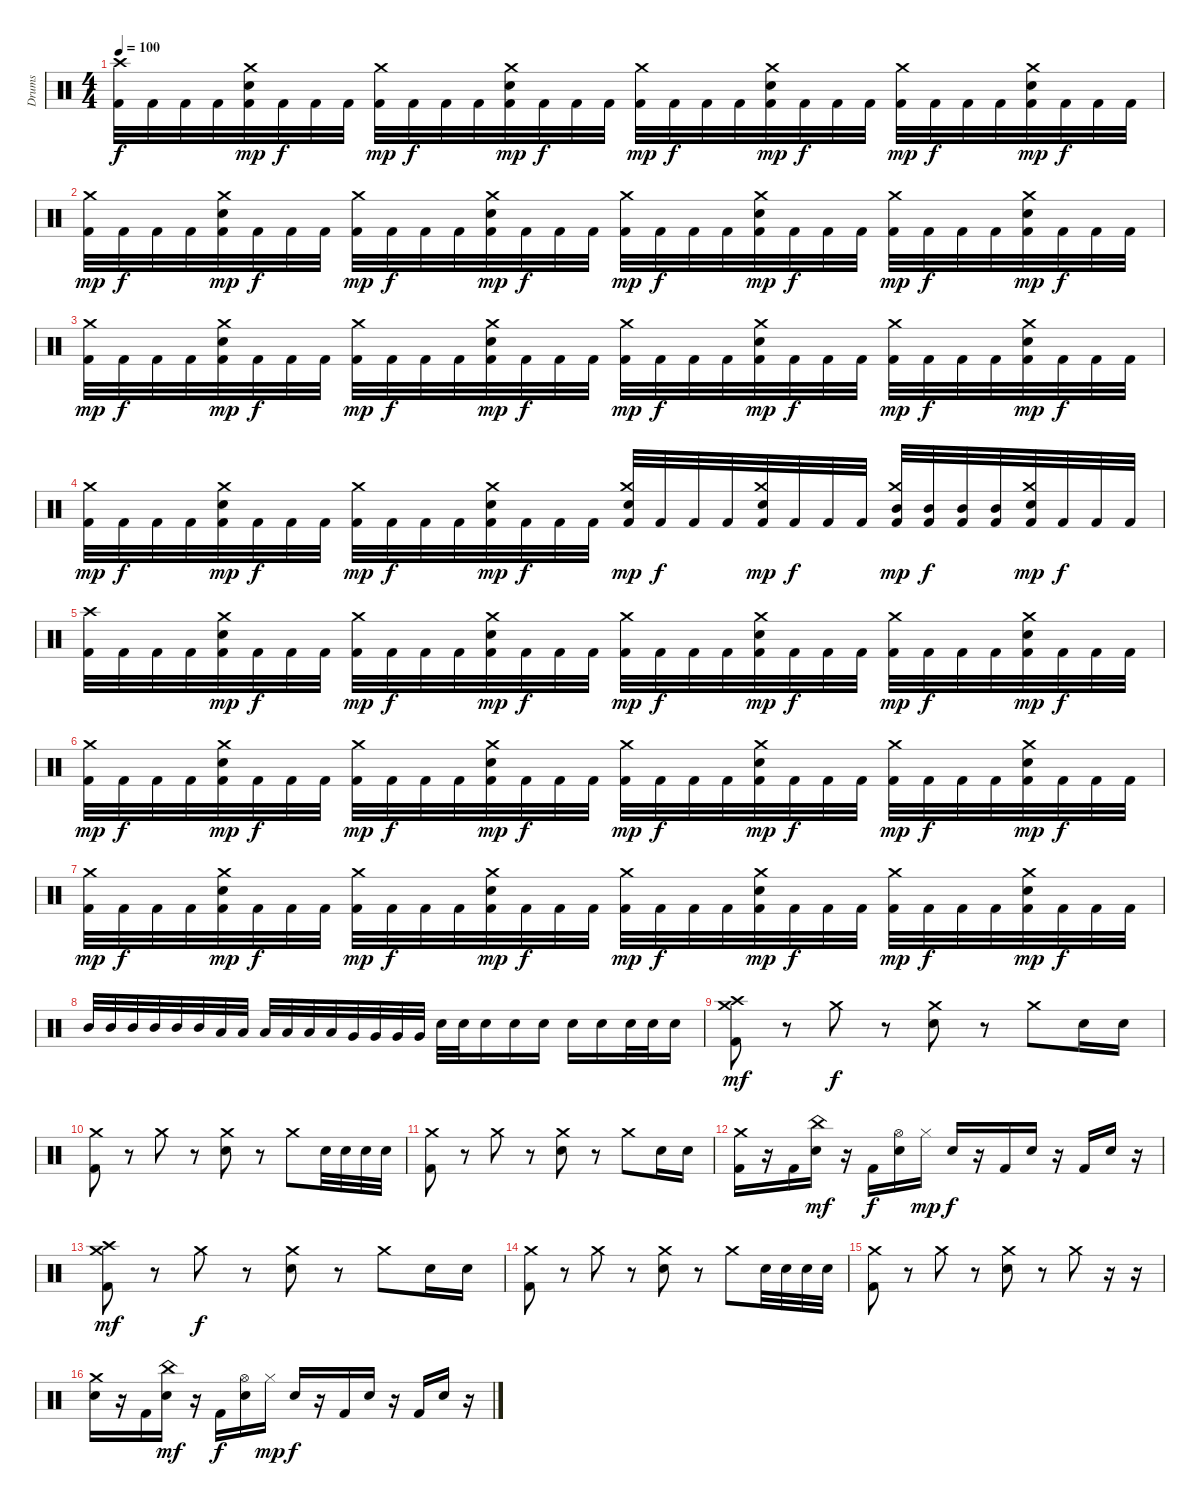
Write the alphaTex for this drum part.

\track ("Drums" "Drums") {instrument percussion}
\staff {score}
\articulation defaults
\ts (4 4)
\tempo 100
\clef neutral
\ks c
("Kick (hit) 2" "Crash high (hit)").32{dy f} "Kick (hit) 2".32 "Kick (hit) 2".32 "Kick (hit) 2".32 ("Kick (hit) 2" "Crash medium (hit)" "Electric Snare (hit)").32{dy mp} "Kick (hit) 2".32{dy f} "Kick (hit) 2".32 "Kick (hit) 2".32 ("Kick (hit) 2" "Crash medium (hit)").32{dy mp} "Kick (hit) 2".32{dy f} "Kick (hit) 2".32 "Kick (hit) 2".32 ("Kick (hit) 2" "Crash medium (hit)" "Electric Snare (hit)").32{dy mp} "Kick (hit) 2".32{dy f} "Kick (hit) 2".32 "Kick (hit) 2".32 ("Kick (hit) 2" "Crash medium (hit)").32{dy mp} "Kick (hit) 2".32{dy f} "Kick (hit) 2".32 "Kick (hit) 2".32 ("Kick (hit) 2" "Crash medium (hit)" "Electric Snare (hit)").32{dy mp} "Kick (hit) 2".32{dy f} "Kick (hit) 2".32 "Kick (hit) 2".32 ("Kick (hit) 2" "Crash medium (hit)").32{dy mp} "Kick (hit) 2".32{dy f} "Kick (hit) 2".32 "Kick (hit) 2".32 ("Kick (hit) 2" "Crash medium (hit)" "Electric Snare (hit)").32{dy mp} "Kick (hit) 2".32{dy f} "Kick (hit) 2".32 "Kick (hit) 2".32 |
("Kick (hit) 2" "Crash medium (hit)").32{dy mp} "Kick (hit) 2".32{dy f} "Kick (hit) 2".32 "Kick (hit) 2".32 ("Kick (hit) 2" "Crash medium (hit)" "Electric Snare (hit)").32{dy mp} "Kick (hit) 2".32{dy f} "Kick (hit) 2".32 "Kick (hit) 2".32 ("Kick (hit) 2" "Crash medium (hit)").32{dy mp} "Kick (hit) 2".32{dy f} "Kick (hit) 2".32 "Kick (hit) 2".32 ("Kick (hit) 2" "Crash medium (hit)" "Electric Snare (hit)").32{dy mp} "Kick (hit) 2".32{dy f} "Kick (hit) 2".32 "Kick (hit) 2".32 ("Kick (hit) 2" "Crash medium (hit)").32{dy mp} "Kick (hit) 2".32{dy f} "Kick (hit) 2".32 "Kick (hit) 2".32 ("Kick (hit) 2" "Crash medium (hit)" "Electric Snare (hit)").32{dy mp} "Kick (hit) 2".32{dy f} "Kick (hit) 2".32 "Kick (hit) 2".32 ("Kick (hit) 2" "Crash medium (hit)").32{dy mp} "Kick (hit) 2".32{dy f} "Kick (hit) 2".32 "Kick (hit) 2".32 ("Kick (hit) 2" "Crash medium (hit)" "Electric Snare (hit)").32{dy mp} "Kick (hit) 2".32{dy f} "Kick (hit) 2".32 "Kick (hit) 2".32 |
("Kick (hit) 2" "Crash medium (hit)").32{dy mp} "Kick (hit) 2".32{dy f} "Kick (hit) 2".32 "Kick (hit) 2".32 ("Kick (hit) 2" "Crash medium (hit)" "Electric Snare (hit)").32{dy mp} "Kick (hit) 2".32{dy f} "Kick (hit) 2".32 "Kick (hit) 2".32 ("Kick (hit) 2" "Crash medium (hit)").32{dy mp} "Kick (hit) 2".32{dy f} "Kick (hit) 2".32 "Kick (hit) 2".32 ("Kick (hit) 2" "Crash medium (hit)" "Electric Snare (hit)").32{dy mp} "Kick (hit) 2".32{dy f} "Kick (hit) 2".32 "Kick (hit) 2".32 ("Kick (hit) 2" "Crash medium (hit)").32{dy mp} "Kick (hit) 2".32{dy f} "Kick (hit) 2".32 "Kick (hit) 2".32 ("Kick (hit) 2" "Crash medium (hit)" "Electric Snare (hit)").32{dy mp} "Kick (hit) 2".32{dy f} "Kick (hit) 2".32 "Kick (hit) 2".32 ("Kick (hit) 2" "Crash medium (hit)").32{dy mp} "Kick (hit) 2".32{dy f} "Kick (hit) 2".32 "Kick (hit) 2".32 ("Kick (hit) 2" "Crash medium (hit)" "Electric Snare (hit)").32{dy mp} "Kick (hit) 2".32{dy f} "Kick (hit) 2".32 "Kick (hit) 2".32 |
("Kick (hit) 2" "Crash medium (hit)").32{dy mp} "Kick (hit) 2".32{dy f} "Kick (hit) 2".32 "Kick (hit) 2".32 ("Kick (hit) 2" "Crash medium (hit)" "Electric Snare (hit)").32{dy mp} "Kick (hit) 2".32{dy f} "Kick (hit) 2".32 "Kick (hit) 2".32 ("Kick (hit) 2" "Crash medium (hit)").32{dy mp} "Kick (hit) 2".32{dy f} "Kick (hit) 2".32 "Kick (hit) 2".32 ("Kick (hit) 2" "Crash medium (hit)" "Electric Snare (hit)").32{dy mp} "Kick (hit) 2".32{dy f} "Kick (hit) 2".32 "Kick (hit) 2".32 ("Kick (hit) 2" "Crash medium (hit)" "Electric Snare (hit)").32{dy mp} "Kick (hit) 2".32{dy f} "Kick (hit) 2".32 "Kick (hit) 2".32 ("Kick (hit) 2" "Crash medium (hit)" "Electric Snare (hit)").32{dy mp} "Kick (hit) 2".32{dy f} "Kick (hit) 2".32 "Kick (hit) 2".32 ("Kick (hit) 2" "Crash medium (hit)" "Mid Tom (hit)").32{dy mp} ("Kick (hit) 2" "Mid Tom (hit)").32{dy f} ("Kick (hit) 2" "Mid Tom (hit)").32 ("Kick (hit) 2" "Mid Tom (hit)").32 ("Kick (hit) 2" "Crash medium (hit)" "Electric Snare (hit)").32{dy mp} "Kick (hit) 2".32{dy f} "Kick (hit) 2".32 "Kick (hit) 2".32 |
("Kick (hit) 2" "Crash high (hit)").32 "Kick (hit) 2".32 "Kick (hit) 2".32 "Kick (hit) 2".32 ("Kick (hit) 2" "Crash medium (hit)" "Electric Snare (hit)").32{dy mp} "Kick (hit) 2".32{dy f} "Kick (hit) 2".32 "Kick (hit) 2".32 ("Kick (hit) 2" "Crash medium (hit)").32{dy mp} "Kick (hit) 2".32{dy f} "Kick (hit) 2".32 "Kick (hit) 2".32 ("Kick (hit) 2" "Crash medium (hit)" "Electric Snare (hit)").32{dy mp} "Kick (hit) 2".32{dy f} "Kick (hit) 2".32 "Kick (hit) 2".32 ("Kick (hit) 2" "Crash medium (hit)").32{dy mp} "Kick (hit) 2".32{dy f} "Kick (hit) 2".32 "Kick (hit) 2".32 ("Kick (hit) 2" "Crash medium (hit)" "Electric Snare (hit)").32{dy mp} "Kick (hit) 2".32{dy f} "Kick (hit) 2".32 "Kick (hit) 2".32 ("Kick (hit) 2" "Crash medium (hit)").32{dy mp} "Kick (hit) 2".32{dy f} "Kick (hit) 2".32 "Kick (hit) 2".32 ("Kick (hit) 2" "Crash medium (hit)" "Electric Snare (hit)").32{dy mp} "Kick (hit) 2".32{dy f} "Kick (hit) 2".32 "Kick (hit) 2".32 |
("Kick (hit) 2" "Crash medium (hit)").32{dy mp} "Kick (hit) 2".32{dy f} "Kick (hit) 2".32 "Kick (hit) 2".32 ("Kick (hit) 2" "Crash medium (hit)" "Electric Snare (hit)").32{dy mp} "Kick (hit) 2".32{dy f} "Kick (hit) 2".32 "Kick (hit) 2".32 ("Kick (hit) 2" "Crash medium (hit)").32{dy mp} "Kick (hit) 2".32{dy f} "Kick (hit) 2".32 "Kick (hit) 2".32 ("Kick (hit) 2" "Crash medium (hit)" "Electric Snare (hit)").32{dy mp} "Kick (hit) 2".32{dy f} "Kick (hit) 2".32 "Kick (hit) 2".32 ("Kick (hit) 2" "Crash medium (hit)").32{dy mp} "Kick (hit) 2".32{dy f} "Kick (hit) 2".32 "Kick (hit) 2".32 ("Kick (hit) 2" "Crash medium (hit)" "Electric Snare (hit)").32{dy mp} "Kick (hit) 2".32{dy f} "Kick (hit) 2".32 "Kick (hit) 2".32 ("Kick (hit) 2" "Crash medium (hit)").32{dy mp} "Kick (hit) 2".32{dy f} "Kick (hit) 2".32 "Kick (hit) 2".32 ("Kick (hit) 2" "Crash medium (hit)" "Electric Snare (hit)").32{dy mp} "Kick (hit) 2".32{dy f} "Kick (hit) 2".32 "Kick (hit) 2".32 |
("Kick (hit) 2" "Crash medium (hit)").32{dy mp} "Kick (hit) 2".32{dy f} "Kick (hit) 2".32 "Kick (hit) 2".32 ("Kick (hit) 2" "Crash medium (hit)" "Electric Snare (hit)").32{dy mp} "Kick (hit) 2".32{dy f} "Kick (hit) 2".32 "Kick (hit) 2".32 ("Kick (hit) 2" "Crash medium (hit)").32{dy mp} "Kick (hit) 2".32{dy f} "Kick (hit) 2".32 "Kick (hit) 2".32 ("Kick (hit) 2" "Crash medium (hit)" "Electric Snare (hit)").32{dy mp} "Kick (hit) 2".32{dy f} "Kick (hit) 2".32 "Kick (hit) 2".32 ("Kick (hit) 2" "Crash medium (hit)").32{dy mp} "Kick (hit) 2".32{dy f} "Kick (hit) 2".32 "Kick (hit) 2".32 ("Kick (hit) 2" "Crash medium (hit)" "Electric Snare (hit)").32{dy mp} "Kick (hit) 2".32{dy f} "Kick (hit) 2".32 "Kick (hit) 2".32 ("Kick (hit) 2" "Crash medium (hit)").32{dy mp} "Kick (hit) 2".32{dy f} "Kick (hit) 2".32 "Kick (hit) 2".32 ("Kick (hit) 2" "Crash medium (hit)" "Electric Snare (hit)").32{dy mp} "Kick (hit) 2".32{dy f} "Kick (hit) 2".32 "Kick (hit) 2".32 |
"Mid Tom (hit)".32 "Mid Tom (hit)".32 "Mid Tom (hit)".32 "Mid Tom (hit)".32 "Mid Tom (hit)".32 "Mid Tom (hit)".32 "Low Tom (hit)".32 "Low Tom (hit)".32 "Low Tom (hit)".32 "Low Tom (hit)".32 "Low Tom (hit)".32 "Low Tom (hit)".32 "Very Low Tom (hit)".32 "Very Low Tom (hit)".32 "Very Low Tom (hit)".32 "Very Low Tom (hit)".32 "Electric Snare (hit)".32 "Electric Snare (hit)".32 "Electric Snare (hit)".16 "Electric Snare (hit)".16 "Electric Snare (hit)".16 "Electric Snare (hit)".16 "Electric Snare (hit)".16 "Electric Snare (hit)".32 "Electric Snare (hit)".32 "Electric Snare (hit)".16 |
("Kick (hit) 2" "Crash high (hit)" "Crash medium (hit)").8{dy mf} r.8 "Crash medium (hit)".8{dy f} r.8 ("Electric Snare (hit)" "Crash medium (hit)").8 r.8 "Crash medium (hit)".8 "Electric Snare (hit)".16 "Electric Snare (hit)".16 |
("Kick (hit) 2" "Crash medium (hit)").8 r.8 "Crash medium (hit)".8 r.8 ("Electric Snare (hit)" "Crash medium (hit)").8 r.8 "Crash medium (hit)".8 "Electric Snare (hit)".32 "Electric Snare (hit)".32 "Electric Snare (hit)".32 "Electric Snare (hit)".32 |
("Kick (hit) 2" "Crash medium (hit)").8 r.8 "Crash medium (hit)".8 r.8 ("Electric Snare (hit)" "Crash medium (hit)").8 r.8 "Crash medium (hit)".8 "Electric Snare (hit)".16 "Electric Snare (hit)".16 |
("Kick (hit) 2" "Crash medium (hit)").16 r.16 "Kick (hit) 2".16 ("Electric Snare (hit)" "China (hit)").16{dy mf} r.16 "Kick (hit) 2".16{dy f} ("Electric Snare (hit)" "Hi-Hat (open)").16 "Hi-Hat (closed)".16{dy mp} "Electric Snare (hit)".16{dy f} r.16 "Kick (hit) 2".16 "Electric Snare (hit)".16 r.16 "Kick (hit) 2".16 "Electric Snare (hit)".16 r.16 |
("Kick (hit) 2" "Crash high (hit)" "Crash medium (hit)").8{dy mf} r.8 "Crash medium (hit)".8{dy f} r.8 ("Electric Snare (hit)" "Crash medium (hit)").8 r.8 "Crash medium (hit)".8 "Electric Snare (hit)".16 "Electric Snare (hit)".16 |
("Kick (hit) 2" "Crash medium (hit)").8 r.8 "Crash medium (hit)".8 r.8 ("Electric Snare (hit)" "Crash medium (hit)").8 r.8 "Crash medium (hit)".8 "Electric Snare (hit)".32 "Electric Snare (hit)".32 "Electric Snare (hit)".32 "Electric Snare (hit)".32 |
("Kick (hit) 2" "Crash medium (hit)").8 r.8 "Crash medium (hit)".8 r.8 ("Electric Snare (hit)" "Crash medium (hit)").8 r.8 "Crash medium (hit)".8 r.16 r.16 |
("Electric Snare (hit)" "Crash medium (hit)").16 r.16 "Kick (hit) 2".16 ("Electric Snare (hit)" "China (hit)").16{dy mf} r.16 "Kick (hit) 2".16{dy f} ("Electric Snare (hit)" "Hi-Hat (open)").16 "Hi-Hat (closed)".16{dy mp} "Electric Snare (hit)".16{dy f} r.16 "Kick (hit) 2".16 "Electric Snare (hit)".16 r.16 "Kick (hit) 2".16 "Electric Snare (hit)".16 r.16
